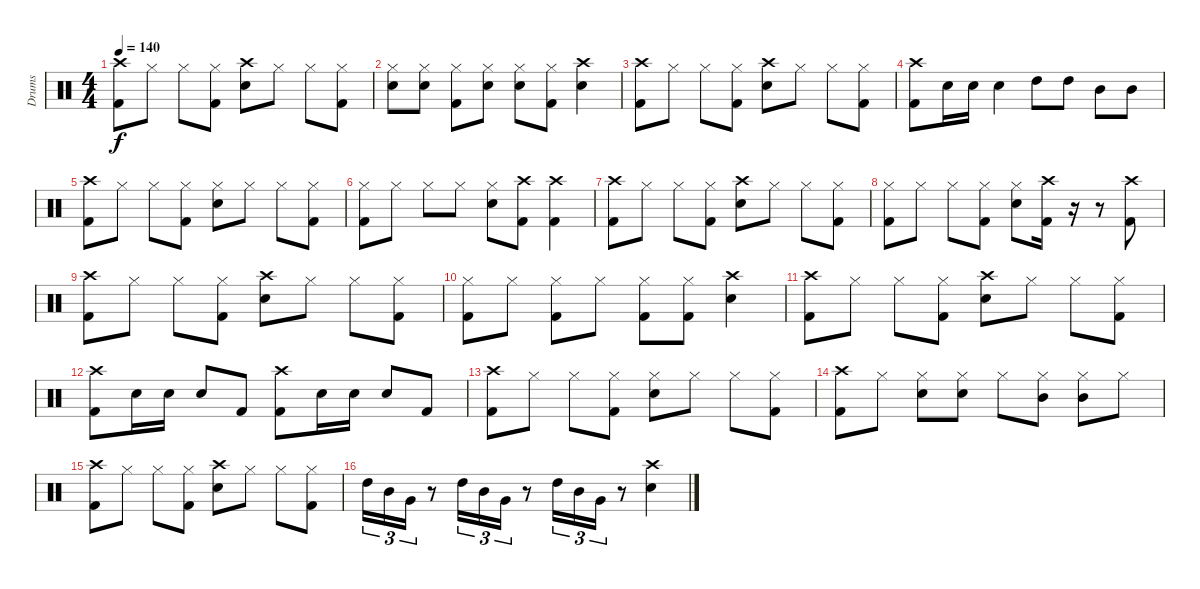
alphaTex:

\track ("Drums" "Drums") {instrument percussion}
\staff {score}
\articulation defaults
\ts (4 4)
\tempo 140
\clef neutral
\ks c
("Crash high (hit)" "Kick (hit) 2").8{dy f} "Hi-Hat (closed)".8 "Hi-Hat (closed)".8 ("Hi-Hat (closed)" "Kick (hit) 2").8 ("Crash high (hit)" "Snare (hit) 2").8 "Hi-Hat (closed)".8 "Hi-Hat (closed)".8 ("Hi-Hat (closed)" "Kick (hit) 2").8 |
("Hi-Hat (closed)" "Snare (hit) 2").8 ("Hi-Hat (closed)" "Snare (hit) 2").8 ("Hi-Hat (closed)" "Kick (hit) 2").8 ("Hi-Hat (closed)" "Snare (hit) 2").8 ("Hi-Hat (closed)" "Snare (hit) 2").8 ("Hi-Hat (closed)" "Kick (hit) 2").8 ("Crash high (hit)" "Snare (hit) 2").4 |
("Crash high (hit)" "Kick (hit) 2").8 "Hi-Hat (closed)".8 "Hi-Hat (closed)".8 ("Hi-Hat (closed)" "Kick (hit) 2").8 ("Crash high (hit)" "Snare (hit) 2").8 "Hi-Hat (closed)".8 "Hi-Hat (closed)".8 ("Hi-Hat (closed)" "Kick (hit) 2").8 |
("Crash high (hit)" "Kick (hit) 2").8 "Snare (hit) 2".16 "Snare (hit) 2".16 "Snare (hit) 2".4 "High Tom (hit)".8 "High Tom (hit)".8 "Mid Tom (hit)".8 "Mid Tom (hit)".8 |
("Crash high (hit)" "Kick (hit) 2").8 "Hi-Hat (closed)".8 "Hi-Hat (closed)".8 ("Hi-Hat (closed)" "Kick (hit) 2").8 ("Hi-Hat (closed)" "Snare (hit) 2").8 "Hi-Hat (closed)".8 "Hi-Hat (closed)".8 ("Hi-Hat (closed)" "Kick (hit) 2").8 |
("Hi-Hat (closed)" "Kick (hit) 2").8 "Hi-Hat (closed)".8 "Hi-Hat (closed)".8 "Hi-Hat (closed)".8 ("Hi-Hat (closed)" "Snare (hit) 2").8 ("Crash high (hit)" "Kick (hit) 2").8 ("Crash high (hit)" "Kick (hit) 2").4 |
("Crash high (hit)" "Kick (hit) 2").8 "Hi-Hat (closed)".8 "Hi-Hat (closed)".8 ("Hi-Hat (closed)" "Kick (hit) 2").8 ("Crash high (hit)" "Snare (hit) 2").8 "Hi-Hat (closed)".8 "Hi-Hat (closed)".8 ("Hi-Hat (closed)" "Kick (hit) 2").8 |
("Hi-Hat (closed)" "Kick (hit) 2").8 "Hi-Hat (closed)".8 "Hi-Hat (closed)".8 ("Hi-Hat (closed)" "Kick (hit) 2").8 ("Hi-Hat (closed)" "Snare (hit) 2").8 ("Crash high (hit)" "Kick (hit) 2").16 r.16 r.8 ("Crash high (hit)" "Kick (hit) 2").8 |
("Crash high (hit)" "Kick (hit) 2").8 "Hi-Hat (closed)".8 "Hi-Hat (closed)".8 ("Hi-Hat (closed)" "Kick (hit) 2").8 ("Crash high (hit)" "Snare (hit) 2").8 "Hi-Hat (closed)".8 "Hi-Hat (closed)".8 ("Hi-Hat (closed)" "Kick (hit) 2").8 |
("Hi-Hat (closed)" "Kick (hit) 2").8 "Hi-Hat (closed)".8 ("Hi-Hat (closed)" "Kick (hit) 2").8 "Hi-Hat (closed)".8 ("Hi-Hat (closed)" "Kick (hit) 2").8 ("Hi-Hat (closed)" "Kick (hit) 2").8 ("Crash high (hit)" "Snare (hit) 2").4 |
("Crash high (hit)" "Kick (hit) 2").8 "Hi-Hat (closed)".8 "Hi-Hat (closed)".8 ("Hi-Hat (closed)" "Kick (hit) 2").8 ("Crash high (hit)" "Snare (hit) 2").8 "Hi-Hat (closed)".8 "Hi-Hat (closed)".8 ("Hi-Hat (closed)" "Kick (hit) 2").8 |
("Crash high (hit)" "Kick (hit) 2").8 "Snare (hit) 2".16 "Snare (hit) 2".16 "Snare (hit) 2".8 "Kick (hit) 2".8 ("Crash high (hit)" "Kick (hit) 2").8 "Snare (hit) 2".16 "Snare (hit) 2".16 "Snare (hit) 2".8 "Kick (hit) 2".8 |
("Crash high (hit)" "Kick (hit) 2").8 "Hi-Hat (closed)".8 "Hi-Hat (closed)".8 ("Hi-Hat (closed)" "Kick (hit) 2").8 ("Hi-Hat (closed)" "Snare (hit) 2").8 "Hi-Hat (closed)".8 "Hi-Hat (closed)".8 ("Hi-Hat (closed)" "Kick (hit) 2").8 |
("Crash high (hit)" "Kick (hit) 2").8 "Hi-Hat (closed)".8 ("Hi-Hat (closed)" "Snare (hit) 2").8 ("Hi-Hat (closed)" "Snare (hit) 2").8 "Hi-Hat (closed)".8 ("Hi-Hat (closed)" "Mid Tom (hit)").8 ("Hi-Hat (closed)" "Mid Tom (hit)").8 "Hi-Hat (closed)".8 |
("Crash high (hit)" "Kick (hit) 2").8 "Hi-Hat (closed)".8 "Hi-Hat (closed)".8 ("Hi-Hat (closed)" "Kick (hit) 2").8 ("Crash high (hit)" "Snare (hit) 2").8 "Hi-Hat (closed)".8 "Hi-Hat (closed)".8 ("Hi-Hat (closed)" "Kick (hit) 2").8 |
"High Tom (hit)".16{tu (3 2)} "Mid Tom (hit)".16{tu (3 2)} "Very Low Tom (hit)".16{tu (3 2)} r.8 "High Tom (hit)".16{tu (3 2)} "Mid Tom (hit)".16{tu (3 2)} "Very Low Tom (hit)".16{tu (3 2)} r.8 "High Tom (hit)".16{tu (3 2)} "Mid Tom (hit)".16{tu (3 2)} "Very Low Tom (hit)".16{tu (3 2)} r.8 ("Crash high (hit)" "Snare (hit) 2").4
